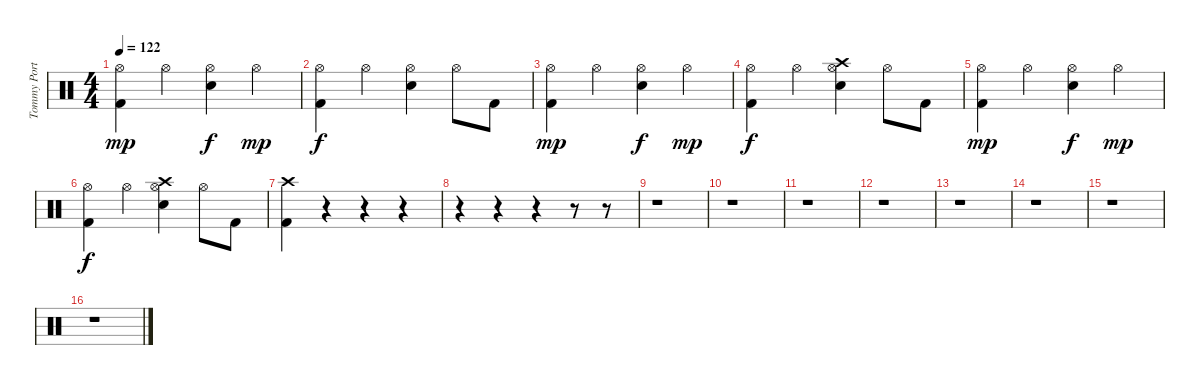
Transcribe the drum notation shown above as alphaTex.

\track ("Tommy Portino" "Tommy Port") {instrument percussion}
\staff {score}
\articulation defaults
\ts (4 4)
\tempo 122
\clef neutral
\ks c
("Hi-Hat (open)" "Kick (hit) 2").4{dy mp} "Hi-Hat (open)".4 ("Hi-Hat (open)" "Snare (hit) 2").4{dy f} "Hi-Hat (open)".4{dy mp} |
("Hi-Hat (open)" "Kick (hit) 2").4{dy f} "Hi-Hat (open)".4 ("Hi-Hat (open)" "Snare (hit) 2").4 "Hi-Hat (open)".8 "Kick (hit) 2".8 |
("Hi-Hat (open)" "Kick (hit) 2").4{dy mp} "Hi-Hat (open)".4 ("Hi-Hat (open)" "Snare (hit) 2").4{dy f} "Hi-Hat (open)".4{dy mp} |
("Hi-Hat (open)" "Kick (hit) 2").4{dy f} "Hi-Hat (open)".4 ("Crash high (hit)" "Hi-Hat (open)" "Snare (hit) 2").4 "Hi-Hat (open)".8 "Kick (hit) 2".8 |
("Hi-Hat (open)" "Kick (hit) 2").4{dy mp} "Hi-Hat (open)".4 ("Hi-Hat (open)" "Snare (hit) 2").4{dy f} "Hi-Hat (open)".4{dy mp} |
("Hi-Hat (open)" "Kick (hit) 2").4{dy f} "Hi-Hat (open)".4 ("Crash high (hit)" "Hi-Hat (open)" "Snare (hit) 2").4 "Hi-Hat (open)".8 "Kick (hit) 2".8 |
("Crash high (hit)" "Kick (hit) 2").4 r.4 r.4 r.4 |
r.4 r.4 r.4 r.8 r.8 |
r.1 |
r.1 |
r.1 |
r.1 |
r.1 |
r.1 |
r.1 |
r.1
